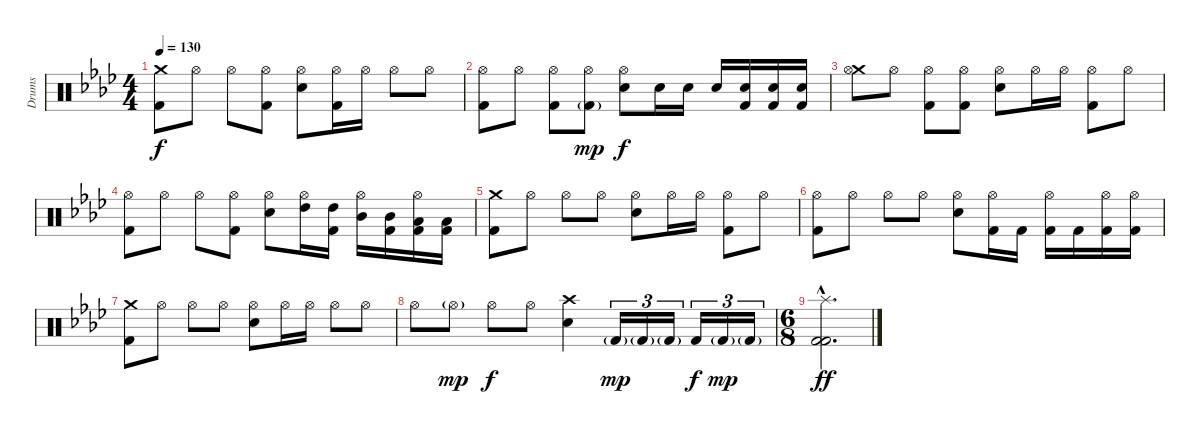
\track ("Drums" "Drums") {instrument percussion}
\staff {score}
\articulation defaults
\ts (4 4)
\tempo 130
\clef neutral
\ks ab
("Crash medium (hit)" "Kick (hit) 2").8{dy f} "Hi-Hat (open)".8 "Hi-Hat (open)".8 ("Kick (hit) 2" "Hi-Hat (open)").8 ("Electric Snare (hit)" "Hi-Hat (open)").8 ("Kick (hit) 2" "Hi-Hat (open)").16 "Hi-Hat (open)".16 "Hi-Hat (open)".8 "Hi-Hat (open)".8 |
("Kick (hit) 2" "Hi-Hat (open)").8 "Hi-Hat (open)".8 ("Kick (hit) 2" "Hi-Hat (open)").8 ("Kick (hit) 2"{g} "Hi-Hat (open)").8{dy mp} ("Electric Snare (hit)" "Hi-Hat (open)").8{dy f} "Electric Snare (hit)".16 "Electric Snare (hit)".16 "Electric Snare (hit)".16 ("Kick (hit) 2" "Electric Snare (hit)").16 ("Kick (hit) 2" "Electric Snare (hit)").16 ("Kick (hit) 2" "Electric Snare (hit)").16 |
("Crash medium (hit)" "Hi-Hat (open)").8 "Hi-Hat (open)".8 ("Kick (hit) 2" "Hi-Hat (open)").8 ("Kick (hit) 2" "Hi-Hat (open)").8 ("Electric Snare (hit)" "Hi-Hat (open)").8 "Hi-Hat (open)".16 "Hi-Hat (open)".16 ("Kick (hit) 2" "Hi-Hat (open)").8 "Hi-Hat (open)".8 |
("Kick (hit) 2" "Hi-Hat (open)").8 "Hi-Hat (open)".8 "Hi-Hat (open)".8 ("Kick (hit) 2" "Hi-Hat (open)").8 ("Electric Snare (hit)" "Hi-Hat (open)").8 ("High Tom (hit)" "Hi-Hat (open)").16 ("Kick (hit) 2" "High Tom (hit)").16 ("Mid Tom (hit)" "Hi-Hat (open)").16 ("Kick (hit) 2" "Mid Tom (hit)").16 ("Kick (hit) 2" "Low Tom (hit)" "Hi-Hat (open)").16 ("Kick (hit) 2" "Low Tom (hit)").16 |
("Crash medium (hit)" "Kick (hit) 2").8 "Hi-Hat (open)".8 "Hi-Hat (open)".8 "Hi-Hat (open)".8 ("Electric Snare (hit)" "Hi-Hat (open)").8 "Hi-Hat (open)".16 "Hi-Hat (open)".16 ("Kick (hit) 2" "Hi-Hat (open)").8 "Hi-Hat (open)".8 |
("Kick (hit) 2" "Hi-Hat (open)").8 "Hi-Hat (open)".8 "Hi-Hat (open)".8 "Hi-Hat (open)".8 ("Electric Snare (hit)" "Hi-Hat (open)").8 ("Kick (hit) 2" "Hi-Hat (open)").16 "Kick (hit) 2".16 ("Kick (hit) 2" "Hi-Hat (open)").16 "Kick (hit) 2".16 ("Kick (hit) 2" "Hi-Hat (open)").16 ("Kick (hit) 2" "Hi-Hat (open)").16 |
("Crash medium (hit)" "Kick (hit) 2").8 "Hi-Hat (open)".8 "Hi-Hat (open)".8 "Hi-Hat (open)".8 ("Electric Snare (hit)" "Hi-Hat (open)").8 "Hi-Hat (open)".16 "Hi-Hat (open)".16 "Hi-Hat (open)".8 "Hi-Hat (open)".8 |
"Hi-Hat (open)".8 "Hi-Hat (open)"{g}.8{dy mp} "Hi-Hat (open)".8{dy f} "Hi-Hat (open)".8 ("Crash high (hit)" "Electric Snare (hit)").4 "Kick (hit) 2"{g}.16{tu (3 2) dy mp} "Kick (hit) 2"{g}.16{tu (3 2)} "Kick (hit) 2"{g}.16{tu (3 2)} "Kick (hit) 2".16{tu (3 2) dy f} "Kick (hit) 2"{g}.16{tu (3 2) dy mp} "Kick (hit) 2"{g}.16{tu (3 2)} |
\ts (6 8)
("Kick (hit) 2"{hac} "Splash (hit)"{hac} "Kick (hit) 2"{hac}).2{d dy ff}
